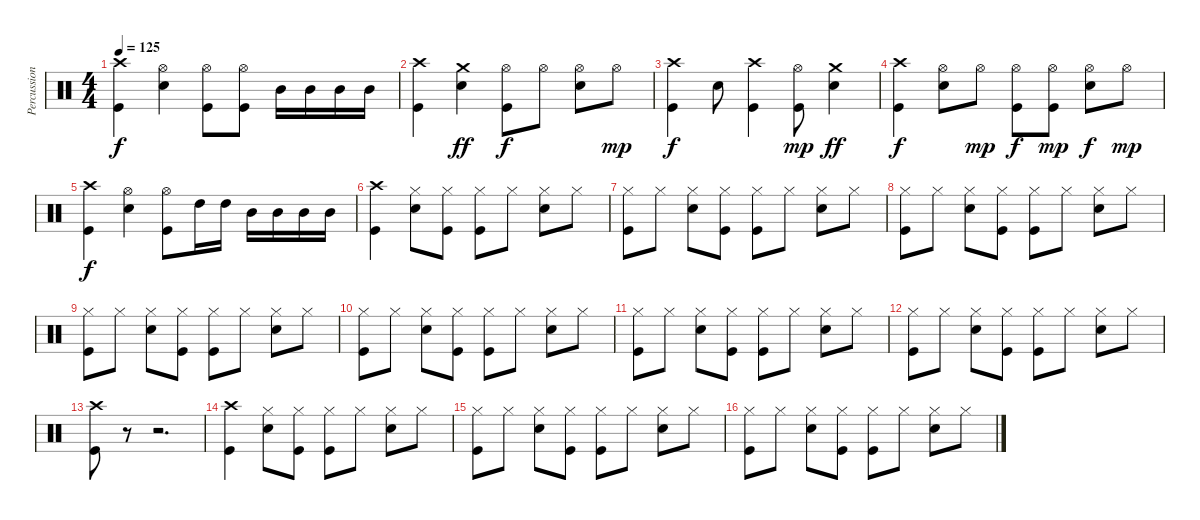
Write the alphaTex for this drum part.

\track ("Percussion" "Percussion") {instrument percussion}
\staff {score}
\articulation defaults
\ts (4 4)
\tempo 125
\clef neutral
\ks c
("Crash high (hit)" "Kick (hit)").4{dy f} ("Hi-Hat (open)" "Electric Snare (hit)").4 ("Hi-Hat (open)" "Kick (hit)").8 ("Hi-Hat (open)" "Kick (hit)").8 "Mid Tom (hit)".16 "Mid Tom (hit)".16 "Mid Tom (hit)".16 "Mid Tom (hit)".16 |
("Crash high (hit)" "Kick (hit)").4 ("Crash medium (hit)" "Electric Snare (hit)").4{dy ff} ("Hi-Hat (open)" "Kick (hit)").8{dy f} "Hi-Hat (open)".8 ("Hi-Hat (open)" "Electric Snare (hit)").8 "Hi-Hat (open)".8{dy mp} |
("Crash high (hit)" "Kick (hit)").4{dy f} "Electric Snare (hit)".8 ("Crash high (hit)" "Kick (hit)").4 ("Hi-Hat (open)" "Kick (hit)").8{dy mp} ("Crash medium (hit)" "Electric Snare (hit)").4{dy ff} |
("Crash high (hit)" "Kick (hit)").4{dy f} ("Hi-Hat (open)" "Electric Snare (hit)").8 "Hi-Hat (open)".8{dy mp} ("Hi-Hat (open)" "Kick (hit)").8{dy f} ("Hi-Hat (open)" "Kick (hit)").8{dy mp} ("Hi-Hat (open)" "Electric Snare (hit)").8{dy f} "Hi-Hat (open)".8{dy mp} |
("Crash high (hit)" "Kick (hit)").4{dy f} ("Hi-Hat (open)" "Electric Snare (hit)").4 ("Hi-Hat (open)" "Kick (hit)").8 "High Tom (hit)".16 "High Tom (hit)".16 "Mid Tom (hit)".16 "Mid Tom (hit)".16 "Mid Tom (hit)".16 "Mid Tom (hit)".16 |
("Crash high (hit)" "Kick (hit)").4 ("Hi-Hat (closed)" "Electric Snare (hit)").8 ("Hi-Hat (closed)" "Kick (hit)").8 ("Hi-Hat (closed)" "Kick (hit)").8 "Hi-Hat (closed)".8 ("Hi-Hat (closed)" "Electric Snare (hit)").8 "Hi-Hat (closed)".8 |
("Hi-Hat (closed)" "Kick (hit)").8 "Hi-Hat (closed)".8 ("Hi-Hat (closed)" "Electric Snare (hit)").8 ("Hi-Hat (closed)" "Kick (hit)").8 ("Hi-Hat (closed)" "Kick (hit)").8 "Hi-Hat (closed)".8 ("Hi-Hat (closed)" "Electric Snare (hit)").8 "Hi-Hat (closed)".8 |
("Hi-Hat (closed)" "Kick (hit)").8 "Hi-Hat (closed)".8 ("Hi-Hat (closed)" "Electric Snare (hit)").8 ("Hi-Hat (closed)" "Kick (hit)").8 ("Hi-Hat (closed)" "Kick (hit)").8 "Hi-Hat (closed)".8 ("Hi-Hat (closed)" "Electric Snare (hit)").8 "Hi-Hat (closed)".8 |
("Hi-Hat (closed)" "Kick (hit)").8 "Hi-Hat (closed)".8 ("Hi-Hat (closed)" "Electric Snare (hit)").8 ("Hi-Hat (closed)" "Kick (hit)").8 ("Hi-Hat (closed)" "Kick (hit)").8 "Hi-Hat (closed)".8 ("Hi-Hat (closed)" "Electric Snare (hit)").8 "Hi-Hat (closed)".8 |
("Hi-Hat (closed)" "Kick (hit)").8 "Hi-Hat (closed)".8 ("Hi-Hat (closed)" "Electric Snare (hit)").8 ("Hi-Hat (closed)" "Kick (hit)").8 ("Hi-Hat (closed)" "Kick (hit)").8 "Hi-Hat (closed)".8 ("Hi-Hat (closed)" "Electric Snare (hit)").8 "Hi-Hat (closed)".8 |
("Hi-Hat (closed)" "Kick (hit)").8 "Hi-Hat (closed)".8 ("Hi-Hat (closed)" "Electric Snare (hit)").8 ("Hi-Hat (closed)" "Kick (hit)").8 ("Hi-Hat (closed)" "Kick (hit)").8 "Hi-Hat (closed)".8 ("Hi-Hat (closed)" "Electric Snare (hit)").8 "Hi-Hat (closed)".8 |
("Hi-Hat (closed)" "Kick (hit)").8 "Hi-Hat (closed)".8 ("Hi-Hat (closed)" "Electric Snare (hit)").8 ("Hi-Hat (closed)" "Kick (hit)").8 ("Hi-Hat (closed)" "Kick (hit)").8 "Hi-Hat (closed)".8 ("Hi-Hat (closed)" "Electric Snare (hit)").8 "Hi-Hat (closed)".8 |
("Crash high (hit)" "Kick (hit)").8 r.8 r.2{d} |
("Crash high (hit)" "Kick (hit)").4 ("Hi-Hat (closed)" "Electric Snare (hit)").8 ("Hi-Hat (closed)" "Kick (hit)").8 ("Hi-Hat (closed)" "Kick (hit)").8 "Hi-Hat (closed)".8 ("Hi-Hat (closed)" "Electric Snare (hit)").8 "Hi-Hat (closed)".8 |
("Hi-Hat (closed)" "Kick (hit)").8 "Hi-Hat (closed)".8 ("Hi-Hat (closed)" "Electric Snare (hit)").8 ("Hi-Hat (closed)" "Kick (hit)").8 ("Hi-Hat (closed)" "Kick (hit)").8 "Hi-Hat (closed)".8 ("Hi-Hat (closed)" "Electric Snare (hit)").8 "Hi-Hat (closed)".8 |
("Hi-Hat (closed)" "Kick (hit)").8 "Hi-Hat (closed)".8 ("Hi-Hat (closed)" "Electric Snare (hit)").8 ("Hi-Hat (closed)" "Kick (hit)").8 ("Hi-Hat (closed)" "Kick (hit)").8 "Hi-Hat (closed)".8 ("Hi-Hat (closed)" "Electric Snare (hit)").8 "Hi-Hat (closed)".8
